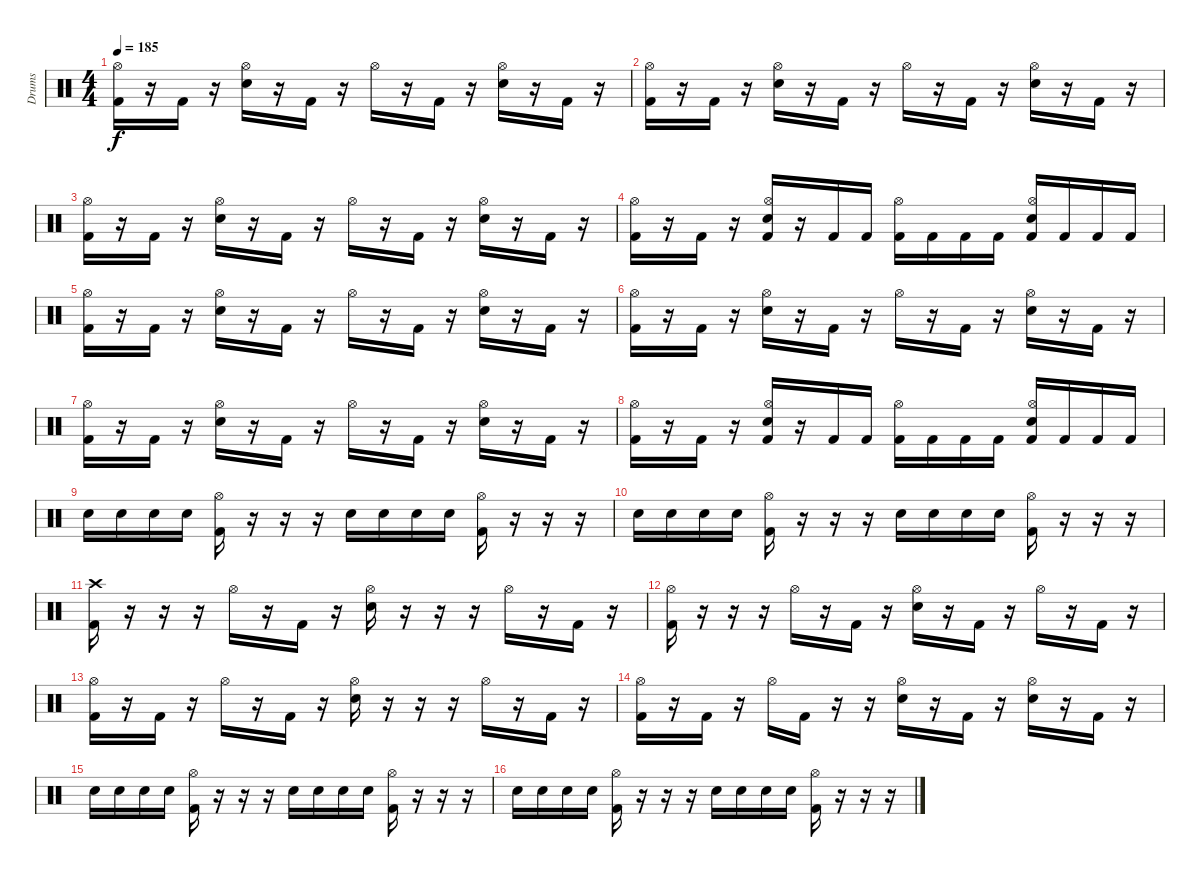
\track ("Drums" "Drums") {instrument percussion}
\staff {score}
\articulation defaults
\ts (4 4)
\tempo 185
\clef neutral
\ks c
("Kick (hit) 2" "Hi-Hat (open)").16{dy f} r.16 "Kick (hit) 2".16 r.16 ("Electric Snare (hit)" "Hi-Hat (open)").16 r.16 "Kick (hit) 2".16 r.16 "Hi-Hat (open)".16 r.16 "Kick (hit) 2".16 r.16 ("Electric Snare (hit)" "Hi-Hat (open)").16 r.16 "Kick (hit) 2".16 r.16 |
("Kick (hit) 2" "Hi-Hat (open)").16 r.16 "Kick (hit) 2".16 r.16 ("Electric Snare (hit)" "Hi-Hat (open)").16 r.16 "Kick (hit) 2".16 r.16 "Hi-Hat (open)".16 r.16 "Kick (hit) 2".16 r.16 ("Electric Snare (hit)" "Hi-Hat (open)").16 r.16 "Kick (hit) 2".16 r.16 |
("Kick (hit) 2" "Hi-Hat (open)").16 r.16 "Kick (hit) 2".16 r.16 ("Electric Snare (hit)" "Hi-Hat (open)").16 r.16 "Kick (hit) 2".16 r.16 "Hi-Hat (open)".16 r.16 "Kick (hit) 2".16 r.16 ("Electric Snare (hit)" "Hi-Hat (open)").16 r.16 "Kick (hit) 2".16 r.16 |
("Kick (hit) 2" "Hi-Hat (open)").16 r.16 "Kick (hit) 2".16 r.16 ("Kick (hit) 2" "Electric Snare (hit)" "Hi-Hat (open)").16 r.16 "Kick (hit) 2".16 "Kick (hit) 2".16 ("Kick (hit) 2" "Hi-Hat (open)").16 "Kick (hit) 2".16 "Kick (hit) 2".16 "Kick (hit) 2".16 ("Kick (hit) 2" "Electric Snare (hit)" "Hi-Hat (open)").16 "Kick (hit) 2".16 "Kick (hit) 2".16 "Kick (hit) 2".16 |
("Kick (hit) 2" "Hi-Hat (open)").16 r.16 "Kick (hit) 2".16 r.16 ("Electric Snare (hit)" "Hi-Hat (open)").16 r.16 "Kick (hit) 2".16 r.16 "Hi-Hat (open)".16 r.16 "Kick (hit) 2".16 r.16 ("Electric Snare (hit)" "Hi-Hat (open)").16 r.16 "Kick (hit) 2".16 r.16 |
("Kick (hit) 2" "Hi-Hat (open)").16 r.16 "Kick (hit) 2".16 r.16 ("Electric Snare (hit)" "Hi-Hat (open)").16 r.16 "Kick (hit) 2".16 r.16 "Hi-Hat (open)".16 r.16 "Kick (hit) 2".16 r.16 ("Electric Snare (hit)" "Hi-Hat (open)").16 r.16 "Kick (hit) 2".16 r.16 |
("Kick (hit) 2" "Hi-Hat (open)").16 r.16 "Kick (hit) 2".16 r.16 ("Electric Snare (hit)" "Hi-Hat (open)").16 r.16 "Kick (hit) 2".16 r.16 "Hi-Hat (open)".16 r.16 "Kick (hit) 2".16 r.16 ("Electric Snare (hit)" "Hi-Hat (open)").16 r.16 "Kick (hit) 2".16 r.16 |
("Kick (hit) 2" "Hi-Hat (open)").16 r.16 "Kick (hit) 2".16 r.16 ("Kick (hit) 2" "Electric Snare (hit)" "Hi-Hat (open)").16 r.16 "Kick (hit) 2".16 "Kick (hit) 2".16 ("Kick (hit) 2" "Hi-Hat (open)").16 "Kick (hit) 2".16 "Kick (hit) 2".16 "Kick (hit) 2".16 ("Kick (hit) 2" "Electric Snare (hit)" "Hi-Hat (open)").16 "Kick (hit) 2".16 "Kick (hit) 2".16 "Kick (hit) 2".16 |
"Electric Snare (hit)".16 "Electric Snare (hit)".16 "Electric Snare (hit)".16 "Electric Snare (hit)".16 ("Kick (hit) 2" "Hi-Hat (open)").16 r.16 r.16 r.16 "Electric Snare (hit)".16 "Electric Snare (hit)".16 "Electric Snare (hit)".16 "Electric Snare (hit)".16 ("Kick (hit) 2" "Hi-Hat (open)").16 r.16 r.16 r.16 |
"Electric Snare (hit)".16 "Electric Snare (hit)".16 "Electric Snare (hit)".16 "Electric Snare (hit)".16 ("Kick (hit) 2" "Hi-Hat (open)").16 r.16 r.16 r.16 "Electric Snare (hit)".16 "Electric Snare (hit)".16 "Electric Snare (hit)".16 "Electric Snare (hit)".16 ("Kick (hit) 2" "Hi-Hat (open)").16 r.16 r.16 r.16 |
("Kick (hit) 2" "Crash high (hit)").16 r.16 r.16 r.16 "Hi-Hat (open)".16 r.16 "Kick (hit) 2".16 r.16 ("Electric Snare (hit)" "Hi-Hat (open)").16 r.16 r.16 r.16 "Hi-Hat (open)".16 r.16 "Kick (hit) 2".16 r.16 |
("Kick (hit) 2" "Hi-Hat (open)").16 r.16 r.16 r.16 "Hi-Hat (open)".16 r.16 "Kick (hit) 2".16 r.16 ("Electric Snare (hit)" "Hi-Hat (open)").16 r.16 "Kick (hit) 2".16 r.16 "Hi-Hat (open)".16 r.16 "Kick (hit) 2".16 r.16 |
("Kick (hit) 2" "Hi-Hat (open)").16 r.16 "Kick (hit) 2".16 r.16 "Hi-Hat (open)".16 r.16 "Kick (hit) 2".16 r.16 ("Electric Snare (hit)" "Hi-Hat (open)").16 r.16 r.16 r.16 "Hi-Hat (open)".16 r.16 "Kick (hit) 2".16 r.16 |
("Kick (hit) 2" "Hi-Hat (open)").16 r.16 "Kick (hit) 2".16 r.16 "Hi-Hat (open)".16 "Kick (hit) 2".16 r.16 r.16 ("Electric Snare (hit)" "Hi-Hat (open)").16 r.16 "Kick (hit) 2".16 r.16 ("Electric Snare (hit)" "Hi-Hat (open)").16 r.16 "Kick (hit) 2".16 r.16 |
"Electric Snare (hit)".16 "Electric Snare (hit)".16 "Electric Snare (hit)".16 "Electric Snare (hit)".16 ("Kick (hit) 2" "Hi-Hat (open)").16 r.16 r.16 r.16 "Electric Snare (hit)".16 "Electric Snare (hit)".16 "Electric Snare (hit)".16 "Electric Snare (hit)".16 ("Kick (hit) 2" "Hi-Hat (open)").16 r.16 r.16 r.16 |
"Electric Snare (hit)".16 "Electric Snare (hit)".16 "Electric Snare (hit)".16 "Electric Snare (hit)".16 ("Kick (hit) 2" "Hi-Hat (open)").16 r.16 r.16 r.16 "Electric Snare (hit)".16 "Electric Snare (hit)".16 "Electric Snare (hit)".16 "Electric Snare (hit)".16 ("Kick (hit) 2" "Hi-Hat (open)").16 r.16 r.16 r.16
